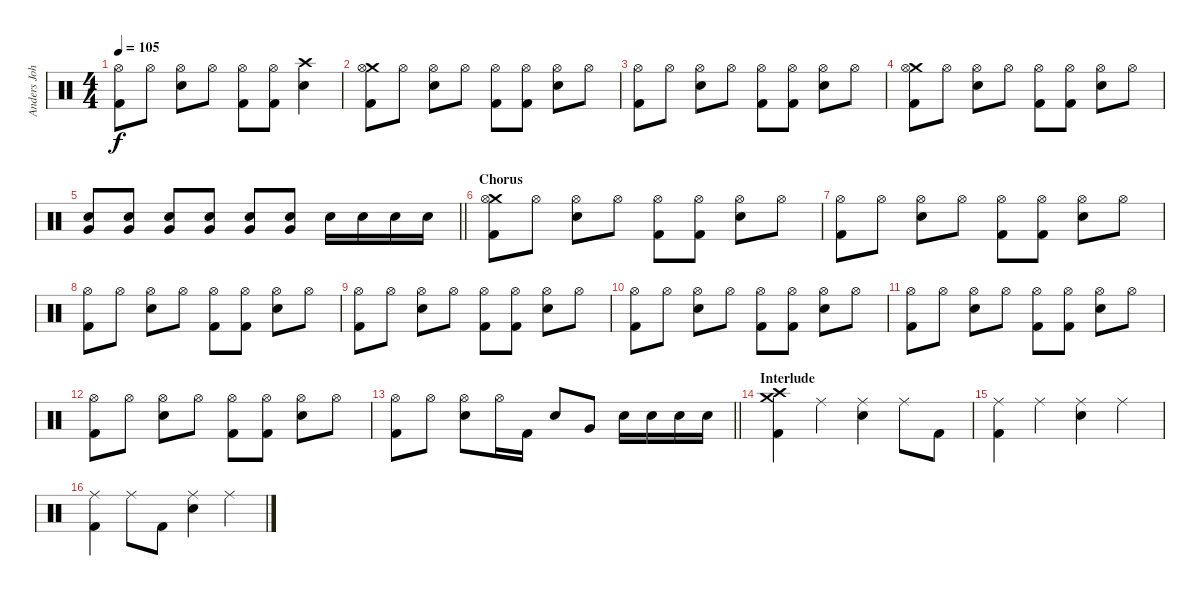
\track ("Anders Johansson" "Anders Joh") {instrument percussion}
\staff {score}
\articulation defaults
\ts (4 4)
\tempo 105
\clef neutral
\ks c
("Hi-Hat (open)" "Kick (hit) 2").8{dy f} "Hi-Hat (open)".8 ("Hi-Hat (open)" "Snare (hit) 2").8 "Hi-Hat (open)".8 ("Hi-Hat (open)" "Kick (hit) 2").8 ("Hi-Hat (open)" "Kick (hit) 2").8 ("Crash high (hit)" "Snare (hit) 2").4 |
("Crash medium (hit)" "Hi-Hat (open)" "Kick (hit) 2").8 "Hi-Hat (open)".8 ("Hi-Hat (open)" "Snare (hit) 2").8 "Hi-Hat (open)".8 ("Hi-Hat (open)" "Kick (hit) 2").8 ("Hi-Hat (open)" "Kick (hit) 2").8 ("Hi-Hat (open)" "Snare (hit) 2").8 "Hi-Hat (open)".8 |
("Hi-Hat (open)" "Kick (hit) 2").8 "Hi-Hat (open)".8 ("Hi-Hat (open)" "Snare (hit) 2").8 "Hi-Hat (open)".8 ("Hi-Hat (open)" "Kick (hit) 2").8 ("Hi-Hat (open)" "Kick (hit) 2").8 ("Hi-Hat (open)" "Snare (hit) 2").8 "Hi-Hat (open)".8 |
("Crash medium (hit)" "Hi-Hat (open)" "Kick (hit) 2").8 "Hi-Hat (open)".8 ("Hi-Hat (open)" "Snare (hit) 2").8 "Hi-Hat (open)".8 ("Hi-Hat (open)" "Kick (hit) 2").8 ("Hi-Hat (open)" "Kick (hit) 2").8 ("Hi-Hat (open)" "Snare (hit) 2").8 "Hi-Hat (open)".8 |
\barLineRight lightlight
("Snare (hit) 2" "Very Low Tom (hit)").8 ("Snare (hit) 2" "Very Low Tom (hit)").8 ("Snare (hit) 2" "Very Low Tom (hit)").8 ("Snare (hit) 2" "Very Low Tom (hit)").8 ("Snare (hit) 2" "Very Low Tom (hit)").8 ("Snare (hit) 2" "Very Low Tom (hit)").8 "Snare (hit) 2".16 "Snare (hit) 2".16 "Snare (hit) 2".16 "Snare (hit) 2".16 |
\section ("" "Chorus")
("Crash medium (hit)" "Hi-Hat (open)" "Kick (hit) 2").8 "Hi-Hat (open)".8 ("Hi-Hat (open)" "Snare (hit) 2").8 "Hi-Hat (open)".8 ("Hi-Hat (open)" "Kick (hit) 2").8 ("Hi-Hat (open)" "Kick (hit) 2").8 ("Hi-Hat (open)" "Snare (hit) 2").8 "Hi-Hat (open)".8 |
("Hi-Hat (open)" "Kick (hit) 2").8 "Hi-Hat (open)".8 ("Hi-Hat (open)" "Snare (hit) 2").8 "Hi-Hat (open)".8 ("Hi-Hat (open)" "Kick (hit) 2").8 ("Hi-Hat (open)" "Kick (hit) 2").8 ("Hi-Hat (open)" "Snare (hit) 2").8 "Hi-Hat (open)".8 |
("Hi-Hat (open)" "Kick (hit) 2").8 "Hi-Hat (open)".8 ("Hi-Hat (open)" "Snare (hit) 2").8 "Hi-Hat (open)".8 ("Hi-Hat (open)" "Kick (hit) 2").8 ("Hi-Hat (open)" "Kick (hit) 2").8 ("Hi-Hat (open)" "Snare (hit) 2").8 "Hi-Hat (open)".8 |
("Hi-Hat (open)" "Kick (hit) 2").8 "Hi-Hat (open)".8 ("Hi-Hat (open)" "Snare (hit) 2").8 "Hi-Hat (open)".8 ("Hi-Hat (open)" "Kick (hit) 2").8 ("Hi-Hat (open)" "Kick (hit) 2").8 ("Hi-Hat (open)" "Snare (hit) 2").8 "Hi-Hat (open)".8 |
("Hi-Hat (open)" "Kick (hit) 2").8 "Hi-Hat (open)".8 ("Hi-Hat (open)" "Snare (hit) 2").8 "Hi-Hat (open)".8 ("Hi-Hat (open)" "Kick (hit) 2").8 ("Hi-Hat (open)" "Kick (hit) 2").8 ("Hi-Hat (open)" "Snare (hit) 2").8 "Hi-Hat (open)".8 |
("Hi-Hat (open)" "Kick (hit) 2").8 "Hi-Hat (open)".8 ("Hi-Hat (open)" "Snare (hit) 2").8 "Hi-Hat (open)".8 ("Hi-Hat (open)" "Kick (hit) 2").8 ("Hi-Hat (open)" "Kick (hit) 2").8 ("Hi-Hat (open)" "Snare (hit) 2").8 "Hi-Hat (open)".8 |
("Hi-Hat (open)" "Kick (hit) 2").8 "Hi-Hat (open)".8 ("Hi-Hat (open)" "Snare (hit) 2").8 "Hi-Hat (open)".8 ("Hi-Hat (open)" "Kick (hit) 2").8 ("Hi-Hat (open)" "Kick (hit) 2").8 ("Hi-Hat (open)" "Snare (hit) 2").8 "Hi-Hat (open)".8 |
\barLineRight lightlight
("Hi-Hat (open)" "Kick (hit) 2").8 "Hi-Hat (open)".8 ("Hi-Hat (open)" "Snare (hit) 2").8 "Hi-Hat (open)".16 "Kick (hit) 2".16 "Snare (hit) 2".8 "Very Low Tom (hit)".8 "Snare (hit) 2".16 "Snare (hit) 2".16 "Snare (hit) 2".16 "Snare (hit) 2".16 |
\section ("" "Interlude")
("Crash medium (hit)" "Crash high (hit)" "Kick (hit) 2").4 "Ride (middle)".4 ("Ride (middle)" "Snare (hit) 2").4 "Ride (middle)".8 "Kick (hit) 2".8 |
("Ride (middle)" "Kick (hit) 2").4 "Ride (middle)".4 ("Ride (middle)" "Snare (hit) 2").4 "Ride (middle)".4 |
("Ride (middle)" "Kick (hit) 2").4 "Ride (middle)".8 "Kick (hit) 2".8 ("Ride (middle)" "Snare (hit) 2").4 "Ride (middle)".4
